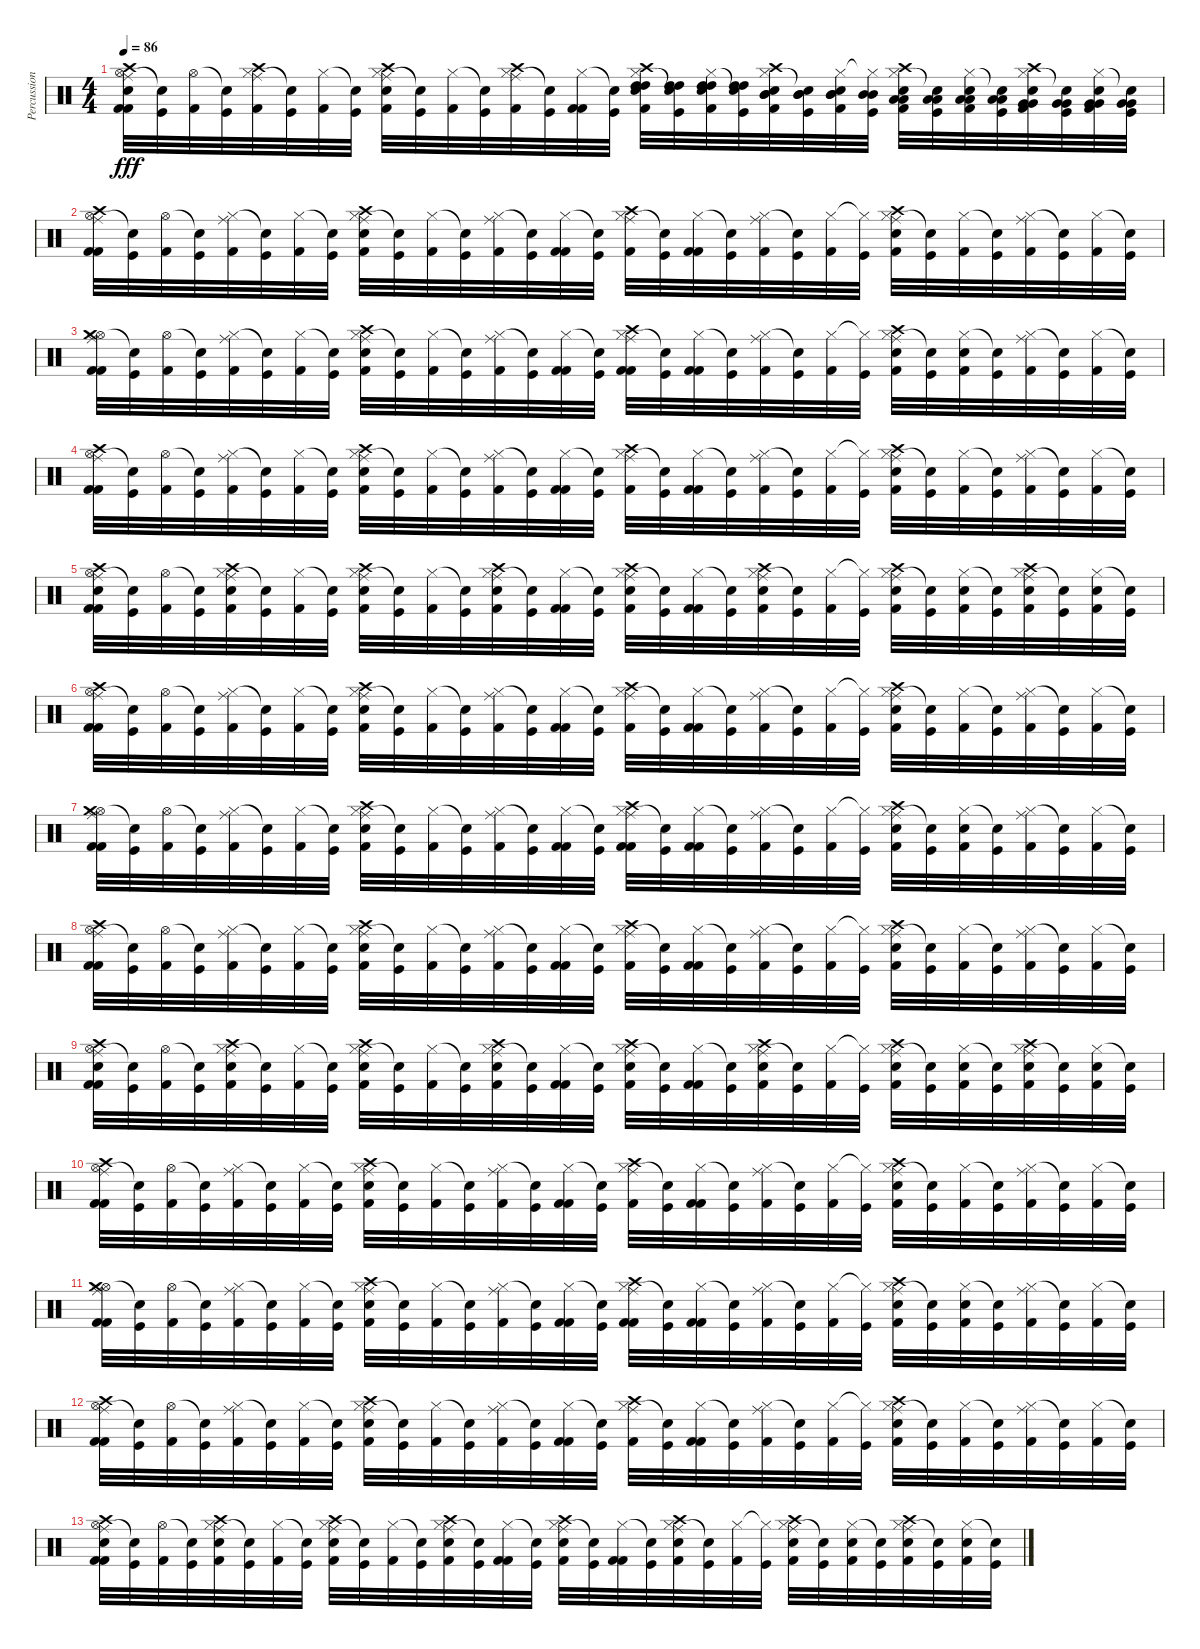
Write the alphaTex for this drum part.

\track ("Percussion" "Percussion") {instrument percussion}
\staff {score}
\articulation defaults
\ts (4 4)
\tempo 86
\clef neutral
\ks c
("Hi-Hat (open)" "Crash high (hit)" "Ride (middle)" "Electric Snare (hit)" "Kick (hit) 2" "Kick (hit) 2").32{dy fff} ("Snare (hit)"{t} "Kick (hit)").32 ("Hi-Hat (open)" "Kick (hit) 2").32 ("Snare (hit)"{t} "Kick (hit)").32 ("Hi-Hat (closed)" "Ride (middle)" "Crash high (hit)" "Kick (hit) 2").32 ("Snare (hit)"{t} "Kick (hit)").32 ("Hi-Hat (closed)" "Kick (hit) 2").32 ("Snare (hit)"{t} "Kick (hit)").32 ("Hi-Hat (closed)" "Crash high (hit)" "Ride (middle)" "Electric Snare (hit)" "Kick (hit) 2").32 ("Snare (hit)"{t} "Kick (hit)").32 ("Hi-Hat (closed)" "Kick (hit) 2").32 ("Snare (hit)"{t} "Kick (hit)").32 ("Hi-Hat (closed)" "Ride (middle)" "Crash high (hit)" "Kick (hit) 2").32 ("Snare (hit)"{t} "Kick (hit)").32 ("Hi-Hat (closed)" "Kick (hit) 2" "Kick (hit) 2").32 ("Snare (hit)"{t} "Kick (hit)").32 ("Hi-Hat (closed)" "Crash high (hit)" "High Tom (hit)" "High Tom (hit)" "Electric Snare (hit)" "Kick (hit) 2").32 ("Snare (hit)"{t} "High Tom (hit)" "High Tom (hit)" "Kick (hit)").32 ("Hi-Hat (closed)" "High Tom (hit)" "High Tom (hit)" "Electric Snare (hit)" "Kick (hit) 2").32 ("Snare (hit)"{t} "High Tom (hit)" "High Tom (hit)" "Kick (hit)").32 ("Hi-Hat (closed)" "Crash high (hit)" "Mid Tom (hit)" "Mid Tom (hit)" "Electric Snare (hit)" "Kick (hit) 2").32 ("Snare (hit)"{t} "Mid Tom (hit)" "Mid Tom (hit)" "Kick (hit)").32 ("Hi-Hat (closed)" "Mid Tom (hit)" "Mid Tom (hit)" "Electric Snare (hit)" "Kick (hit) 2").32 ("Hi-Hat (closed)"{t} "Mid Tom (hit)" "Mid Tom (hit)" "Kick (hit)").32 ("Hi-Hat (closed)" "Crash high (hit)" "Low Tom (hit)" "Low Tom (hit)" "Electric Snare (hit)" "Kick (hit) 2").32 ("Snare (hit)"{t} "Low Tom (hit)" "Low Tom (hit)" "Kick (hit)").32 ("Hi-Hat (closed)" "Low Tom (hit)" "Low Tom (hit)" "Electric Snare (hit)" "Kick (hit) 2").32 ("Snare (hit)"{t} "Low Tom (hit)" "Low Tom (hit)" "Kick (hit)").32 ("Hi-Hat (closed)" "Crash high (hit)" "Very Low Tom (hit)" "Very Low Tom (hit)" "Electric Snare (hit)" "Kick (hit) 2").32 ("Snare (hit)"{t} "Very Low Tom (hit)" "Very Low Tom (hit)" "Kick (hit)").32 ("Hi-Hat (closed)" "Very Low Tom (hit)" "Very Low Tom (hit)" "Electric Snare (hit)" "Kick (hit) 2").32 ("Snare (hit)"{t} "Very Low Tom (hit)" "Very Low Tom (hit)" "Kick (hit)").32 |
("Hi-Hat (open)" "Crash high (hit)" "Ride (middle)" "Kick (hit) 2" "Kick (hit) 2").32 ("Snare (hit)"{t} "Kick (hit)").32 ("Hi-Hat (open)" "Kick (hit) 2").32 ("Snare (hit)"{t} "Kick (hit)").32 ("Hi-Hat (closed)" "Ride (middle)" "Kick (hit) 2").32 ("Snare (hit)"{t} "Kick (hit)").32 ("Hi-Hat (closed)" "Kick (hit) 2").32 ("Snare (hit)"{t} "Kick (hit)").32 ("Hi-Hat (closed)" "Crash high (hit)" "Ride (middle)" "Electric Snare (hit)" "Kick (hit) 2").32 ("Snare (hit)"{t} "Kick (hit)").32 ("Hi-Hat (closed)" "Kick (hit) 2").32 ("Snare (hit)"{t} "Kick (hit)").32 ("Hi-Hat (closed)" "Ride (middle)" "Kick (hit) 2").32 ("Snare (hit)"{t} "Kick (hit)").32 ("Hi-Hat (closed)" "Kick (hit) 2" "Kick (hit) 2").32 ("Snare (hit)"{t} "Kick (hit)").32 ("Hi-Hat (closed)" "Crash high (hit)" "Ride (middle)" "Kick (hit) 2").32 ("Snare (hit)"{t} "Kick (hit)").32 ("Hi-Hat (closed)" "Kick (hit) 2" "Kick (hit) 2").32 ("Snare (hit)"{t} "Kick (hit)").32 ("Hi-Hat (closed)" "Ride (middle)" "Kick (hit) 2").32 ("Snare (hit)"{t} "Kick (hit)").32 ("Hi-Hat (closed)" "Kick (hit) 2").32 ("Hi-Hat (closed)"{t} "Kick (hit)").32 ("Hi-Hat (closed)" "Crash high (hit)" "Ride (middle)" "Electric Snare (hit)" "Kick (hit) 2").32 ("Snare (hit)"{t} "Kick (hit)").32 ("Hi-Hat (closed)" "Kick (hit) 2").32 ("Snare (hit)"{t} "Kick (hit)").32 ("Hi-Hat (closed)" "Ride (middle)" "Kick (hit) 2").32 ("Snare (hit)"{t} "Kick (hit)").32 ("Hi-Hat (closed)" "Kick (hit) 2").32 ("Snare (hit)"{t} "Kick (hit)").32 |
("Hi-Hat (open)" "Crash medium (hit)" "Ride (middle)" "Kick (hit) 2" "Kick (hit) 2").32 ("Snare (hit)"{t} "Kick (hit)").32 ("Hi-Hat (open)" "Kick (hit) 2").32 ("Snare (hit)"{t} "Kick (hit)").32 ("Hi-Hat (closed)" "Ride (middle)" "Kick (hit) 2").32 ("Snare (hit)"{t} "Kick (hit)").32 ("Hi-Hat (closed)" "Kick (hit) 2").32 ("Snare (hit)"{t} "Kick (hit)").32 ("Hi-Hat (closed)" "Crash high (hit)" "Ride (middle)" "Electric Snare (hit)" "Kick (hit) 2").32 ("Snare (hit)"{t} "Kick (hit)").32 ("Hi-Hat (closed)" "Kick (hit) 2").32 ("Snare (hit)"{t} "Kick (hit)").32 ("Hi-Hat (closed)" "Ride (middle)" "Kick (hit) 2").32 ("Snare (hit)"{t} "Kick (hit)").32 ("Hi-Hat (closed)" "Kick (hit) 2" "Kick (hit) 2").32 ("Snare (hit)"{t} "Kick (hit)").32 ("Hi-Hat (closed)" "Crash high (hit)" "Ride (middle)" "Kick (hit) 2" "Kick (hit) 2").32 ("Snare (hit)"{t} "Kick (hit)").32 ("Hi-Hat (closed)" "Kick (hit) 2" "Kick (hit) 2").32 ("Snare (hit)"{t} "Kick (hit)").32 ("Hi-Hat (closed)" "Ride (middle)" "Kick (hit) 2").32 ("Snare (hit)"{t} "Kick (hit)").32 ("Hi-Hat (closed)" "Kick (hit) 2").32 ("Hi-Hat (closed)"{t} "Kick (hit)").32 ("Hi-Hat (closed)" "Crash high (hit)" "Ride (middle)" "Electric Snare (hit)" "Kick (hit) 2").32 ("Snare (hit)"{t} "Kick (hit)").32 ("Hi-Hat (closed)" "Electric Snare (hit)" "Kick (hit) 2").32 ("Snare (hit)"{t} "Kick (hit)").32 ("Hi-Hat (closed)" "Ride (middle)" "Kick (hit) 2").32 ("Snare (hit)"{t} "Kick (hit)").32 ("Hi-Hat (closed)" "Kick (hit) 2").32 ("Snare (hit)"{t} "Kick (hit)").32 |
("Hi-Hat (open)" "Crash high (hit)" "Ride (middle)" "Kick (hit) 2" "Kick (hit) 2").32 ("Snare (hit)"{t} "Kick (hit)").32 ("Hi-Hat (open)" "Kick (hit) 2").32 ("Snare (hit)"{t} "Kick (hit)").32 ("Hi-Hat (closed)" "Ride (middle)" "Kick (hit) 2").32 ("Snare (hit)"{t} "Kick (hit)").32 ("Hi-Hat (closed)" "Kick (hit) 2").32 ("Snare (hit)"{t} "Kick (hit)").32 ("Hi-Hat (closed)" "Crash high (hit)" "Ride (middle)" "Electric Snare (hit)" "Kick (hit) 2").32 ("Snare (hit)"{t} "Kick (hit)").32 ("Hi-Hat (closed)" "Kick (hit) 2").32 ("Snare (hit)"{t} "Kick (hit)").32 ("Hi-Hat (closed)" "Ride (middle)" "Kick (hit) 2").32 ("Snare (hit)"{t} "Kick (hit)").32 ("Hi-Hat (closed)" "Kick (hit) 2" "Kick (hit) 2").32 ("Snare (hit)"{t} "Kick (hit)").32 ("Hi-Hat (closed)" "Crash high (hit)" "Ride (middle)" "Kick (hit) 2").32 ("Snare (hit)"{t} "Kick (hit)").32 ("Hi-Hat (closed)" "Kick (hit) 2" "Kick (hit) 2").32 ("Snare (hit)"{t} "Kick (hit)").32 ("Hi-Hat (closed)" "Ride (middle)" "Kick (hit) 2").32 ("Snare (hit)"{t} "Kick (hit)").32 ("Hi-Hat (closed)" "Kick (hit) 2").32 ("Hi-Hat (closed)"{t} "Kick (hit)").32 ("Hi-Hat (closed)" "Crash high (hit)" "Ride (middle)" "Electric Snare (hit)" "Kick (hit) 2").32 ("Snare (hit)"{t} "Kick (hit)").32 ("Hi-Hat (closed)" "Kick (hit) 2").32 ("Snare (hit)"{t} "Kick (hit)").32 ("Hi-Hat (closed)" "Ride (middle)" "Kick (hit) 2").32 ("Snare (hit)"{t} "Kick (hit)").32 ("Hi-Hat (closed)" "Kick (hit) 2").32 ("Snare (hit)"{t} "Kick (hit)").32 |
("Hi-Hat (open)" "Crash high (hit)" "Ride (middle)" "Electric Snare (hit)" "Kick (hit) 2" "Kick (hit) 2").32 ("Snare (hit)"{t} "Kick (hit)").32 ("Hi-Hat (open)" "Kick (hit) 2").32 ("Snare (hit)"{t} "Kick (hit)").32 ("Hi-Hat (closed)" "Ride (middle)" "Crash high (hit)" "Electric Snare (hit)" "Kick (hit) 2").32 ("Snare (hit)"{t} "Kick (hit)").32 ("Hi-Hat (closed)" "Kick (hit) 2").32 ("Snare (hit)"{t} "Kick (hit)").32 ("Hi-Hat (closed)" "Crash high (hit)" "Ride (middle)" "Electric Snare (hit)" "Kick (hit) 2").32 ("Snare (hit)"{t} "Kick (hit)").32 ("Hi-Hat (closed)" "Kick (hit) 2").32 ("Snare (hit)"{t} "Kick (hit)").32 ("Hi-Hat (closed)" "Ride (middle)" "Crash high (hit)" "Electric Snare (hit)" "Kick (hit) 2").32 ("Snare (hit)"{t} "Kick (hit)").32 ("Hi-Hat (closed)" "Kick (hit) 2" "Kick (hit) 2").32 ("Snare (hit)"{t} "Kick (hit)").32 ("Hi-Hat (closed)" "Crash high (hit)" "Ride (middle)" "Electric Snare (hit)" "Kick (hit) 2").32 ("Snare (hit)"{t} "Kick (hit)").32 ("Hi-Hat (closed)" "Kick (hit) 2" "Kick (hit) 2").32 ("Snare (hit)"{t} "Kick (hit)").32 ("Hi-Hat (closed)" "Ride (middle)" "Crash high (hit)" "Electric Snare (hit)" "Kick (hit) 2").32 ("Snare (hit)"{t} "Kick (hit)").32 ("Hi-Hat (closed)" "Kick (hit) 2").32 ("Hi-Hat (closed)"{t} "Kick (hit)").32 ("Hi-Hat (closed)" "Crash high (hit)" "Ride (middle)" "Electric Snare (hit)" "Kick (hit) 2").32 ("Snare (hit)"{t} "Kick (hit)").32 ("Hi-Hat (closed)" "Electric Snare (hit)" "Kick (hit) 2").32 ("Snare (hit)"{t} "Kick (hit)").32 ("Hi-Hat (closed)" "Ride (middle)" "Crash high (hit)" "Electric Snare (hit)" "Kick (hit) 2").32 ("Snare (hit)"{t} "Kick (hit)").32 ("Hi-Hat (closed)" "Electric Snare (hit)" "Kick (hit) 2").32 ("Snare (hit)"{t} "Kick (hit)").32 |
("Hi-Hat (open)" "Crash high (hit)" "Ride (middle)" "Kick (hit) 2" "Kick (hit) 2").32 ("Snare (hit)"{t} "Kick (hit)").32 ("Hi-Hat (open)" "Kick (hit) 2").32 ("Snare (hit)"{t} "Kick (hit)").32 ("Hi-Hat (closed)" "Ride (middle)" "Kick (hit) 2").32 ("Snare (hit)"{t} "Kick (hit)").32 ("Hi-Hat (closed)" "Kick (hit) 2").32 ("Snare (hit)"{t} "Kick (hit)").32 ("Hi-Hat (closed)" "Crash high (hit)" "Ride (middle)" "Electric Snare (hit)" "Kick (hit) 2").32 ("Snare (hit)"{t} "Kick (hit)").32 ("Hi-Hat (closed)" "Kick (hit) 2").32 ("Snare (hit)"{t} "Kick (hit)").32 ("Hi-Hat (closed)" "Ride (middle)" "Kick (hit) 2").32 ("Snare (hit)"{t} "Kick (hit)").32 ("Hi-Hat (closed)" "Kick (hit) 2" "Kick (hit) 2").32 ("Snare (hit)"{t} "Kick (hit)").32 ("Hi-Hat (closed)" "Crash high (hit)" "Ride (middle)" "Kick (hit) 2").32 ("Snare (hit)"{t} "Kick (hit)").32 ("Hi-Hat (closed)" "Kick (hit) 2" "Kick (hit) 2").32 ("Snare (hit)"{t} "Kick (hit)").32 ("Hi-Hat (closed)" "Ride (middle)" "Kick (hit) 2").32 ("Snare (hit)"{t} "Kick (hit)").32 ("Hi-Hat (closed)" "Kick (hit) 2").32 ("Hi-Hat (closed)"{t} "Kick (hit)").32 ("Hi-Hat (closed)" "Crash high (hit)" "Ride (middle)" "Electric Snare (hit)" "Kick (hit) 2").32 ("Snare (hit)"{t} "Kick (hit)").32 ("Hi-Hat (closed)" "Kick (hit) 2").32 ("Snare (hit)"{t} "Kick (hit)").32 ("Hi-Hat (closed)" "Ride (middle)" "Kick (hit) 2").32 ("Snare (hit)"{t} "Kick (hit)").32 ("Hi-Hat (closed)" "Kick (hit) 2").32 ("Snare (hit)"{t} "Kick (hit)").32 |
("Hi-Hat (open)" "Crash medium (hit)" "Ride (middle)" "Kick (hit) 2" "Kick (hit) 2").32 ("Snare (hit)"{t} "Kick (hit)").32 ("Hi-Hat (open)" "Kick (hit) 2").32 ("Snare (hit)"{t} "Kick (hit)").32 ("Hi-Hat (closed)" "Ride (middle)" "Kick (hit) 2").32 ("Snare (hit)"{t} "Kick (hit)").32 ("Hi-Hat (closed)" "Kick (hit) 2").32 ("Snare (hit)"{t} "Kick (hit)").32 ("Hi-Hat (closed)" "Crash high (hit)" "Ride (middle)" "Electric Snare (hit)" "Kick (hit) 2").32 ("Snare (hit)"{t} "Kick (hit)").32 ("Hi-Hat (closed)" "Kick (hit) 2").32 ("Snare (hit)"{t} "Kick (hit)").32 ("Hi-Hat (closed)" "Ride (middle)" "Kick (hit) 2").32 ("Snare (hit)"{t} "Kick (hit)").32 ("Hi-Hat (closed)" "Kick (hit) 2" "Kick (hit) 2").32 ("Snare (hit)"{t} "Kick (hit)").32 ("Hi-Hat (closed)" "Crash high (hit)" "Ride (middle)" "Kick (hit) 2" "Kick (hit) 2").32 ("Snare (hit)"{t} "Kick (hit)").32 ("Hi-Hat (closed)" "Kick (hit) 2" "Kick (hit) 2").32 ("Snare (hit)"{t} "Kick (hit)").32 ("Hi-Hat (closed)" "Ride (middle)" "Kick (hit) 2").32 ("Snare (hit)"{t} "Kick (hit)").32 ("Hi-Hat (closed)" "Kick (hit) 2").32 ("Hi-Hat (closed)"{t} "Kick (hit)").32 ("Hi-Hat (closed)" "Crash high (hit)" "Ride (middle)" "Electric Snare (hit)" "Kick (hit) 2").32 ("Snare (hit)"{t} "Kick (hit)").32 ("Hi-Hat (closed)" "Electric Snare (hit)" "Kick (hit) 2").32 ("Snare (hit)"{t} "Kick (hit)").32 ("Hi-Hat (closed)" "Ride (middle)" "Kick (hit) 2").32 ("Snare (hit)"{t} "Kick (hit)").32 ("Hi-Hat (closed)" "Kick (hit) 2").32 ("Snare (hit)"{t} "Kick (hit)").32 |
("Hi-Hat (open)" "Crash high (hit)" "Ride (middle)" "Kick (hit) 2" "Kick (hit) 2").32 ("Snare (hit)"{t} "Kick (hit)").32 ("Hi-Hat (open)" "Kick (hit) 2").32 ("Snare (hit)"{t} "Kick (hit)").32 ("Hi-Hat (closed)" "Ride (middle)" "Kick (hit) 2").32 ("Snare (hit)"{t} "Kick (hit)").32 ("Hi-Hat (closed)" "Kick (hit) 2").32 ("Snare (hit)"{t} "Kick (hit)").32 ("Hi-Hat (closed)" "Crash high (hit)" "Ride (middle)" "Electric Snare (hit)" "Kick (hit) 2").32 ("Snare (hit)"{t} "Kick (hit)").32 ("Hi-Hat (closed)" "Kick (hit) 2").32 ("Snare (hit)"{t} "Kick (hit)").32 ("Hi-Hat (closed)" "Ride (middle)" "Kick (hit) 2").32 ("Snare (hit)"{t} "Kick (hit)").32 ("Hi-Hat (closed)" "Kick (hit) 2" "Kick (hit) 2").32 ("Snare (hit)"{t} "Kick (hit)").32 ("Hi-Hat (closed)" "Crash high (hit)" "Ride (middle)" "Kick (hit) 2").32 ("Snare (hit)"{t} "Kick (hit)").32 ("Hi-Hat (closed)" "Kick (hit) 2" "Kick (hit) 2").32 ("Snare (hit)"{t} "Kick (hit)").32 ("Hi-Hat (closed)" "Ride (middle)" "Kick (hit) 2").32 ("Snare (hit)"{t} "Kick (hit)").32 ("Hi-Hat (closed)" "Kick (hit) 2").32 ("Hi-Hat (closed)"{t} "Kick (hit)").32 ("Hi-Hat (closed)" "Crash high (hit)" "Ride (middle)" "Electric Snare (hit)" "Kick (hit) 2").32 ("Snare (hit)"{t} "Kick (hit)").32 ("Hi-Hat (closed)" "Kick (hit) 2").32 ("Snare (hit)"{t} "Kick (hit)").32 ("Hi-Hat (closed)" "Ride (middle)" "Kick (hit) 2").32 ("Snare (hit)"{t} "Kick (hit)").32 ("Hi-Hat (closed)" "Kick (hit) 2").32 ("Snare (hit)"{t} "Kick (hit)").32 |
("Hi-Hat (open)" "Crash high (hit)" "Ride (middle)" "Electric Snare (hit)" "Kick (hit) 2" "Kick (hit) 2").32 ("Snare (hit)"{t} "Kick (hit)").32 ("Hi-Hat (open)" "Kick (hit) 2").32 ("Snare (hit)"{t} "Kick (hit)").32 ("Hi-Hat (closed)" "Ride (middle)" "Crash high (hit)" "Electric Snare (hit)" "Kick (hit) 2").32 ("Snare (hit)"{t} "Kick (hit)").32 ("Hi-Hat (closed)" "Kick (hit) 2").32 ("Snare (hit)"{t} "Kick (hit)").32 ("Hi-Hat (closed)" "Crash high (hit)" "Ride (middle)" "Electric Snare (hit)" "Kick (hit) 2").32 ("Snare (hit)"{t} "Kick (hit)").32 ("Hi-Hat (closed)" "Kick (hit) 2").32 ("Snare (hit)"{t} "Kick (hit)").32 ("Hi-Hat (closed)" "Ride (middle)" "Crash high (hit)" "Electric Snare (hit)" "Kick (hit) 2").32 ("Snare (hit)"{t} "Kick (hit)").32 ("Hi-Hat (closed)" "Kick (hit) 2" "Kick (hit) 2").32 ("Snare (hit)"{t} "Kick (hit)").32 ("Hi-Hat (closed)" "Crash high (hit)" "Ride (middle)" "Electric Snare (hit)" "Kick (hit) 2").32 ("Snare (hit)"{t} "Kick (hit)").32 ("Hi-Hat (closed)" "Kick (hit) 2" "Kick (hit) 2").32 ("Snare (hit)"{t} "Kick (hit)").32 ("Hi-Hat (closed)" "Ride (middle)" "Crash high (hit)" "Electric Snare (hit)" "Kick (hit) 2").32 ("Snare (hit)"{t} "Kick (hit)").32 ("Hi-Hat (closed)" "Kick (hit) 2").32 ("Hi-Hat (closed)"{t} "Kick (hit)").32 ("Hi-Hat (closed)" "Crash high (hit)" "Ride (middle)" "Electric Snare (hit)" "Kick (hit) 2").32 ("Snare (hit)"{t} "Kick (hit)").32 ("Hi-Hat (closed)" "Electric Snare (hit)" "Kick (hit) 2").32 ("Snare (hit)"{t} "Kick (hit)").32 ("Hi-Hat (closed)" "Ride (middle)" "Crash high (hit)" "Electric Snare (hit)" "Kick (hit) 2").32 ("Snare (hit)"{t} "Kick (hit)").32 ("Hi-Hat (closed)" "Electric Snare (hit)" "Kick (hit) 2").32 ("Snare (hit)"{t} "Kick (hit)").32 |
("Hi-Hat (open)" "Crash high (hit)" "Ride (middle)" "Kick (hit) 2" "Kick (hit) 2").32 ("Snare (hit)"{t} "Kick (hit)").32 ("Hi-Hat (open)" "Kick (hit) 2").32 ("Snare (hit)"{t} "Kick (hit)").32 ("Hi-Hat (closed)" "Ride (middle)" "Kick (hit) 2").32 ("Snare (hit)"{t} "Kick (hit)").32 ("Hi-Hat (closed)" "Kick (hit) 2").32 ("Snare (hit)"{t} "Kick (hit)").32 ("Hi-Hat (closed)" "Crash high (hit)" "Ride (middle)" "Electric Snare (hit)" "Kick (hit) 2").32 ("Snare (hit)"{t} "Kick (hit)").32 ("Hi-Hat (closed)" "Kick (hit) 2").32 ("Snare (hit)"{t} "Kick (hit)").32 ("Hi-Hat (closed)" "Ride (middle)" "Kick (hit) 2").32 ("Snare (hit)"{t} "Kick (hit)").32 ("Hi-Hat (closed)" "Kick (hit) 2" "Kick (hit) 2").32 ("Snare (hit)"{t} "Kick (hit)").32 ("Hi-Hat (closed)" "Crash high (hit)" "Ride (middle)" "Kick (hit) 2").32 ("Snare (hit)"{t} "Kick (hit)").32 ("Hi-Hat (closed)" "Kick (hit) 2" "Kick (hit) 2").32 ("Snare (hit)"{t} "Kick (hit)").32 ("Hi-Hat (closed)" "Ride (middle)" "Kick (hit) 2").32 ("Snare (hit)"{t} "Kick (hit)").32 ("Hi-Hat (closed)" "Kick (hit) 2").32 ("Hi-Hat (closed)"{t} "Kick (hit)").32 ("Hi-Hat (closed)" "Crash high (hit)" "Ride (middle)" "Electric Snare (hit)" "Kick (hit) 2").32 ("Snare (hit)"{t} "Kick (hit)").32 ("Hi-Hat (closed)" "Kick (hit) 2").32 ("Snare (hit)"{t} "Kick (hit)").32 ("Hi-Hat (closed)" "Ride (middle)" "Kick (hit) 2").32 ("Snare (hit)"{t} "Kick (hit)").32 ("Hi-Hat (closed)" "Kick (hit) 2").32 ("Snare (hit)"{t} "Kick (hit)").32 |
("Hi-Hat (open)" "Crash medium (hit)" "Ride (middle)" "Kick (hit) 2" "Kick (hit) 2").32 ("Snare (hit)"{t} "Kick (hit)").32 ("Hi-Hat (open)" "Kick (hit) 2").32 ("Snare (hit)"{t} "Kick (hit)").32 ("Hi-Hat (closed)" "Ride (middle)" "Kick (hit) 2").32 ("Snare (hit)"{t} "Kick (hit)").32 ("Hi-Hat (closed)" "Kick (hit) 2").32 ("Snare (hit)"{t} "Kick (hit)").32 ("Hi-Hat (closed)" "Crash high (hit)" "Ride (middle)" "Electric Snare (hit)" "Kick (hit) 2").32 ("Snare (hit)"{t} "Kick (hit)").32 ("Hi-Hat (closed)" "Kick (hit) 2").32 ("Snare (hit)"{t} "Kick (hit)").32 ("Hi-Hat (closed)" "Ride (middle)" "Kick (hit) 2").32 ("Snare (hit)"{t} "Kick (hit)").32 ("Hi-Hat (closed)" "Kick (hit) 2" "Kick (hit) 2").32 ("Snare (hit)"{t} "Kick (hit)").32 ("Hi-Hat (closed)" "Crash high (hit)" "Ride (middle)" "Kick (hit) 2" "Kick (hit) 2").32 ("Snare (hit)"{t} "Kick (hit)").32 ("Hi-Hat (closed)" "Kick (hit) 2" "Kick (hit) 2").32 ("Snare (hit)"{t} "Kick (hit)").32 ("Hi-Hat (closed)" "Ride (middle)" "Kick (hit) 2").32 ("Snare (hit)"{t} "Kick (hit)").32 ("Hi-Hat (closed)" "Kick (hit) 2").32 ("Hi-Hat (closed)"{t} "Kick (hit)").32 ("Hi-Hat (closed)" "Crash high (hit)" "Ride (middle)" "Electric Snare (hit)" "Kick (hit) 2").32 ("Snare (hit)"{t} "Kick (hit)").32 ("Hi-Hat (closed)" "Electric Snare (hit)" "Kick (hit) 2").32 ("Snare (hit)"{t} "Kick (hit)").32 ("Hi-Hat (closed)" "Ride (middle)" "Kick (hit) 2").32 ("Snare (hit)"{t} "Kick (hit)").32 ("Hi-Hat (closed)" "Kick (hit) 2").32 ("Snare (hit)"{t} "Kick (hit)").32 |
("Hi-Hat (open)" "Crash high (hit)" "Ride (middle)" "Kick (hit) 2" "Kick (hit) 2").32 ("Snare (hit)"{t} "Kick (hit)").32 ("Hi-Hat (open)" "Kick (hit) 2").32 ("Snare (hit)"{t} "Kick (hit)").32 ("Hi-Hat (closed)" "Ride (middle)" "Kick (hit) 2").32 ("Snare (hit)"{t} "Kick (hit)").32 ("Hi-Hat (closed)" "Kick (hit) 2").32 ("Snare (hit)"{t} "Kick (hit)").32 ("Hi-Hat (closed)" "Crash high (hit)" "Ride (middle)" "Electric Snare (hit)" "Kick (hit) 2").32 ("Snare (hit)"{t} "Kick (hit)").32 ("Hi-Hat (closed)" "Kick (hit) 2").32 ("Snare (hit)"{t} "Kick (hit)").32 ("Hi-Hat (closed)" "Ride (middle)" "Kick (hit) 2").32 ("Snare (hit)"{t} "Kick (hit)").32 ("Hi-Hat (closed)" "Kick (hit) 2" "Kick (hit) 2").32 ("Snare (hit)"{t} "Kick (hit)").32 ("Hi-Hat (closed)" "Crash high (hit)" "Ride (middle)" "Kick (hit) 2").32 ("Snare (hit)"{t} "Kick (hit)").32 ("Hi-Hat (closed)" "Kick (hit) 2" "Kick (hit) 2").32 ("Snare (hit)"{t} "Kick (hit)").32 ("Hi-Hat (closed)" "Ride (middle)" "Kick (hit) 2").32 ("Snare (hit)"{t} "Kick (hit)").32 ("Hi-Hat (closed)" "Kick (hit) 2").32 ("Hi-Hat (closed)"{t} "Kick (hit)").32 ("Hi-Hat (closed)" "Crash high (hit)" "Ride (middle)" "Electric Snare (hit)" "Kick (hit) 2").32 ("Snare (hit)"{t} "Kick (hit)").32 ("Hi-Hat (closed)" "Kick (hit) 2").32 ("Snare (hit)"{t} "Kick (hit)").32 ("Hi-Hat (closed)" "Ride (middle)" "Kick (hit) 2").32 ("Snare (hit)"{t} "Kick (hit)").32 ("Hi-Hat (closed)" "Kick (hit) 2").32 ("Snare (hit)"{t} "Kick (hit)").32 |
("Hi-Hat (open)" "Crash high (hit)" "Ride (middle)" "Electric Snare (hit)" "Kick (hit) 2" "Kick (hit) 2").32 ("Snare (hit)"{t} "Kick (hit)").32 ("Hi-Hat (open)" "Kick (hit) 2").32 ("Snare (hit)"{t} "Kick (hit)").32 ("Hi-Hat (closed)" "Ride (middle)" "Crash high (hit)" "Electric Snare (hit)" "Kick (hit) 2").32 ("Snare (hit)"{t} "Kick (hit)").32 ("Hi-Hat (closed)" "Kick (hit) 2").32 ("Snare (hit)"{t} "Kick (hit)").32 ("Hi-Hat (closed)" "Crash high (hit)" "Ride (middle)" "Electric Snare (hit)" "Kick (hit) 2").32 ("Snare (hit)"{t} "Kick (hit)").32 ("Hi-Hat (closed)" "Kick (hit) 2").32 ("Snare (hit)"{t} "Kick (hit)").32 ("Hi-Hat (closed)" "Ride (middle)" "Crash high (hit)" "Electric Snare (hit)" "Kick (hit) 2").32 ("Snare (hit)"{t} "Kick (hit)").32 ("Hi-Hat (closed)" "Kick (hit) 2" "Kick (hit) 2").32 ("Snare (hit)"{t} "Kick (hit)").32 ("Hi-Hat (closed)" "Crash high (hit)" "Ride (middle)" "Electric Snare (hit)" "Kick (hit) 2").32 ("Snare (hit)"{t} "Kick (hit)").32 ("Hi-Hat (closed)" "Kick (hit) 2" "Kick (hit) 2").32 ("Snare (hit)"{t} "Kick (hit)").32 ("Hi-Hat (closed)" "Ride (middle)" "Crash high (hit)" "Electric Snare (hit)" "Kick (hit) 2").32 ("Snare (hit)"{t} "Kick (hit)").32 ("Hi-Hat (closed)" "Kick (hit) 2").32 ("Hi-Hat (closed)"{t} "Kick (hit)").32 ("Hi-Hat (closed)" "Crash high (hit)" "Ride (middle)" "Electric Snare (hit)" "Kick (hit) 2").32 ("Snare (hit)"{t} "Kick (hit)").32 ("Hi-Hat (closed)" "Electric Snare (hit)" "Kick (hit) 2").32 ("Snare (hit)"{t} "Kick (hit)").32 ("Hi-Hat (closed)" "Ride (middle)" "Crash high (hit)" "Electric Snare (hit)" "Kick (hit) 2").32 ("Snare (hit)"{t} "Kick (hit)").32 ("Hi-Hat (closed)" "Electric Snare (hit)" "Kick (hit) 2").32 ("Snare (hit)"{t} "Kick (hit)").32
